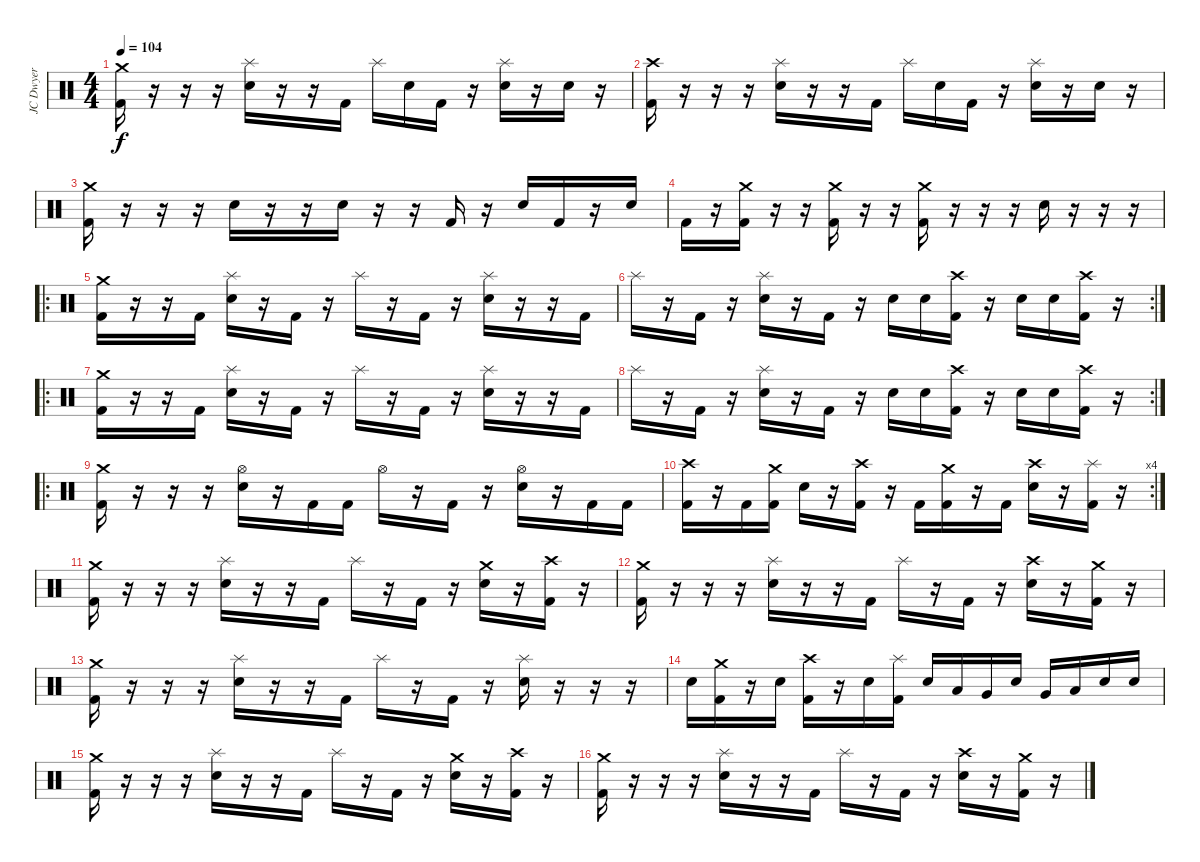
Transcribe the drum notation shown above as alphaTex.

\track ("JC Dwyer" "JC Dwyer") {instrument percussion}
\staff {score}
\articulation defaults
\ts (4 4)
\tempo 104
\clef neutral
\ks c
("Crash medium (hit)" "Kick (hit) 2").16{dy f} r.16 r.16 r.16 ("Splash (hit)" "Electric Snare (hit)").16 r.16 r.16 "Kick (hit) 2".16 "Splash (hit)".16 "Electric Snare (hit)".16 "Kick (hit) 2".16 r.16 ("Splash (hit)" "Electric Snare (hit)").16 r.16 "Electric Snare (hit)".16 r.16 |
("Crash high (hit)" "Kick (hit) 2").16 r.16 r.16 r.16 ("Splash (hit)" "Electric Snare (hit)").16 r.16 r.16 "Kick (hit) 2".16 "Splash (hit)".16 "Electric Snare (hit)".16 "Kick (hit) 2".16 r.16 ("Splash (hit)" "Electric Snare (hit)").16 r.16 "Electric Snare (hit)".16 r.16 |
("Crash medium (hit)" "Kick (hit) 2").16 r.16 r.16 r.16 "Electric Snare (hit)".16 r.16 r.16 "Electric Snare (hit)".16 r.16 r.16 "Kick (hit) 2".16 r.16 "Electric Snare (hit)".16 "Kick (hit) 2".16 r.16 "Electric Snare (hit)".16 |
"Kick (hit) 2".16 r.16 ("Crash medium (hit)" "Kick (hit) 2").16 r.16 r.16 ("Crash medium (hit)" "Kick (hit) 2").16 r.16 r.16 ("Crash medium (hit)" "Kick (hit) 2").16 r.16 r.16 r.16 "Electric Snare (hit)".16 r.16 r.16 r.16 |
\ro
("Crash medium (hit)" "Kick (hit) 2").16 r.16 r.16 "Kick (hit) 2".16 ("Splash (hit)" "Electric Snare (hit)").16 r.16 "Kick (hit) 2".16 r.16 "Splash (hit)".16 r.16 "Kick (hit) 2".16 r.16 ("Splash (hit)" "Electric Snare (hit)").16 r.16 r.16 "Kick (hit) 2".16 |
\rc 2 "Splash (hit)".16
r.16 "Kick (hit) 2".16 r.16 ("Splash (hit)" "Electric Snare (hit)").16 r.16 "Kick (hit) 2".16 r.16 "Electric Snare (hit)".16 "Electric Snare (hit)".16 ("Crash high (hit)" "Kick (hit) 2").16 r.16 "Electric Snare (hit)".16 "Electric Snare (hit)".16 ("Crash high (hit)" "Kick (hit) 2").16 r.16 |
\ro
("Crash medium (hit)" "Kick (hit) 2").16 r.16 r.16 "Kick (hit) 2".16 ("Splash (hit)" "Electric Snare (hit)").16 r.16 "Kick (hit) 2".16 r.16 "Splash (hit)".16 r.16 "Kick (hit) 2".16 r.16 ("Splash (hit)" "Electric Snare (hit)").16 r.16 r.16 "Kick (hit) 2".16 |
\rc 2 "Splash (hit)".16
r.16 "Kick (hit) 2".16 r.16 ("Splash (hit)" "Electric Snare (hit)").16 r.16 "Kick (hit) 2".16 r.16 "Electric Snare (hit)".16 "Electric Snare (hit)".16 ("Crash high (hit)" "Kick (hit) 2").16 r.16 "Electric Snare (hit)".16 "Electric Snare (hit)".16 ("Crash high (hit)" "Kick (hit) 2").16 r.16 |
\ro
("Crash medium (hit)" "Kick (hit) 2").16 r.16 r.16 r.16 ("Hi-Hat (open)" "Electric Snare (hit)").16 r.16 "Kick (hit) 2".16 "Kick (hit) 2".16 "Hi-Hat (open)".16 r.16 "Kick (hit) 2".16 r.16 ("Hi-Hat (open)" "Electric Snare (hit)").16 r.16 "Kick (hit) 2".16 "Kick (hit) 2".16 |
\rc 4
("Crash high (hit)" "Kick (hit) 2").16 r.16 "Kick (hit) 2".16 ("Crash medium (hit)" "Kick (hit) 2").16 "Electric Snare (hit)".16 r.16 ("Crash high (hit)" "Kick (hit) 2").16 r.16 "Kick (hit) 2".16 ("Crash medium (hit)" "Kick (hit) 2").16 r.16 "Kick (hit) 2".16 ("Crash high (hit)" "Electric Snare (hit)").16 r.16 ("Splash (hit)" "Kick (hit) 2").16 r.16 |
("Crash medium (hit)" "Kick (hit) 2").16 r.16 r.16 r.16 ("Splash (hit)" "Electric Snare (hit)").16 r.16 r.16 "Kick (hit) 2".16 "Splash (hit)".16 r.16 "Kick (hit) 2".16 r.16 ("Crash medium (hit)" "Electric Snare (hit)").16 r.16 ("Crash high (hit)" "Kick (hit) 2").16 r.16 |
("Crash medium (hit)" "Kick (hit) 2").16 r.16 r.16 r.16 ("Splash (hit)" "Electric Snare (hit)").16 r.16 r.16 "Kick (hit) 2".16 "Splash (hit)".16 r.16 "Kick (hit) 2".16 r.16 ("Crash high (hit)" "Electric Snare (hit)").16 r.16 ("Crash medium (hit)" "Kick (hit) 2").16 r.16 |
("Crash medium (hit)" "Kick (hit) 2").16 r.16 r.16 r.16 ("Splash (hit)" "Electric Snare (hit)").16 r.16 r.16 "Kick (hit) 2".16 "Splash (hit)".16 r.16 "Kick (hit) 2".16 r.16 ("Splash (hit)" "Electric Snare (hit)").16 r.16 r.16 r.16 |
"Electric Snare (hit)".16 ("Crash medium (hit)" "Kick (hit) 2").16 r.16 "Electric Snare (hit)".16 ("Crash high (hit)" "Kick (hit) 2").16 r.16 "Electric Snare (hit)".16 ("Splash (hit)" "Kick (hit) 2").16 "Electric Snare (hit)".16 "Low Tom (hit)".16 "Very Low Tom (hit)".16 "Electric Snare (hit)".16 "Very Low Tom (hit)".16 "Low Floor Tom (hit)".16 "Electric Snare (hit)".16 "Electric Snare (hit)".16 |
("Crash medium (hit)" "Kick (hit) 2").16 r.16 r.16 r.16 ("Splash (hit)" "Electric Snare (hit)").16 r.16 r.16 "Kick (hit) 2".16 "Splash (hit)".16 r.16 "Kick (hit) 2".16 r.16 ("Crash medium (hit)" "Electric Snare (hit)").16 r.16 ("Crash high (hit)" "Kick (hit) 2").16 r.16 |
("Crash medium (hit)" "Kick (hit) 2").16 r.16 r.16 r.16 ("Splash (hit)" "Electric Snare (hit)").16 r.16 r.16 "Kick (hit) 2".16 "Splash (hit)".16 r.16 "Kick (hit) 2".16 r.16 ("Crash high (hit)" "Electric Snare (hit)").16 r.16 ("Crash medium (hit)" "Kick (hit) 2").16 r.16
